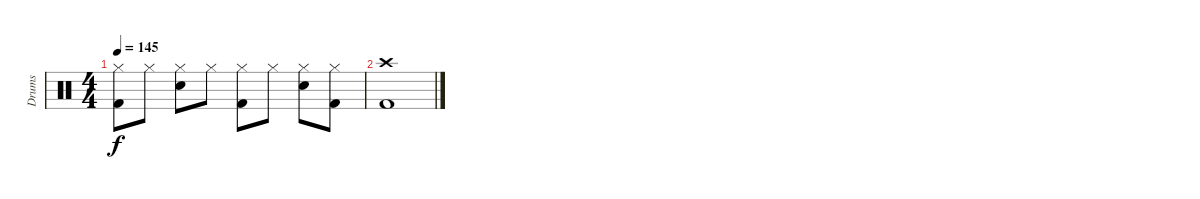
\track ("Drums" "Drums") {instrument percussion}
\staff {score}
\articulation defaults
\ts (4 4)
\tempo 145
\clef neutral
\ks c
("Hi-Hat (closed)" "Kick (hit) 2").8{dy f} "Hi-Hat (closed)".8 ("Hi-Hat (closed)" "Snare (hit) 2").8 "Hi-Hat (closed)".8 ("Hi-Hat (closed)" "Kick (hit) 2").8 "Hi-Hat (closed)".8 ("Hi-Hat (closed)" "Snare (hit) 2").8 ("Hi-Hat (closed)" "Kick (hit) 2").8 |
("Crash high (hit)" "Kick (hit) 2").1
